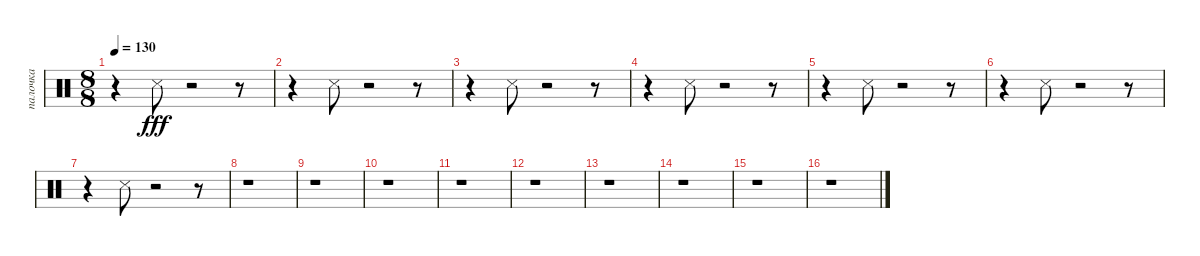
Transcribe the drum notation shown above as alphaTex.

\track ("палочка" "палочка") {instrument percussion}
\staff {score}
\articulation defaults
\ts (8 8)
\tempo 130
\clef neutral
\ks c
r.4{dy fff} "Snare (side stick) 3".8 r.2 r.8 |
r.4 "Snare (side stick) 3".8 r.2 r.8 |
r.4 "Snare (side stick) 3".8 r.2 r.8 |
r.4 "Snare (side stick) 3".8 r.2 r.8 |
r.4 "Snare (side stick) 3".8 r.2 r.8 |
r.4 "Snare (side stick) 3".8 r.2 r.8 |
r.4 "Snare (side stick) 3".8 r.2 r.8 |
r.1 |
r.1 |
r.1 |
r.1 |
r.1 |
r.1 |
r.1 |
r.1 |
r.1
